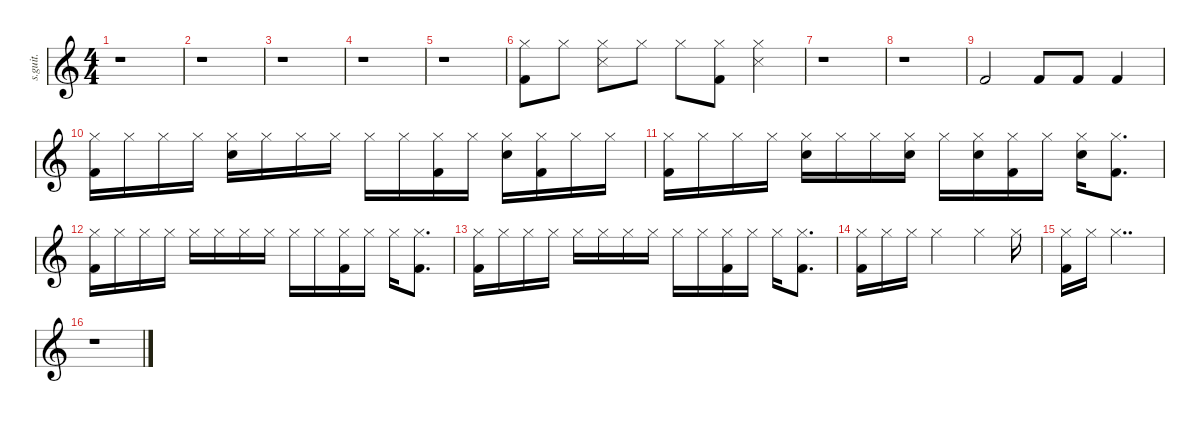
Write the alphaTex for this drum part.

\defaultSystemsLayout 4
\hideDynamics
\bracketExtendMode nobrackets
\track ("" "s.guit.") {instrument percussion}
\staff {score}
\articulation defaults
\ts (4 4)
\beaming (8 2 2 2 2)
\tempo (90 hide)
\clef g2
\ks c
r.1{dy f} |
r.1 |
r.1 |
r.1 |
r.1 |
("Hi-Hat (closed)" "Kick (hit) 2").8 "Hi-Hat (closed)".8 ("Hi-Hat (closed)" "Snare (side stick) 3").8 "Hi-Hat (closed)".8 "Hi-Hat (closed)".8 ("Hi-Hat (closed)" "Kick (hit) 2").8 ("Hi-Hat (closed)" "Snare (side stick) 3").4 |
r.1 |
r.1 |
"Kick (hit) 2".2 "Kick (hit) 2".8 "Kick (hit) 2".8 "Kick (hit) 2".4 |
("Hi-Hat (closed)" "Kick (hit) 2").16 "Hi-Hat (closed)".16 "Hi-Hat (closed)".16 "Hi-Hat (closed)".16 ("Hi-Hat (closed)" "Snare (hit) 2").16 "Hi-Hat (closed)".16 "Hi-Hat (closed)".16 "Hi-Hat (closed)".16 "Hi-Hat (closed)".16 "Hi-Hat (closed)".16 ("Hi-Hat (closed)" "Kick (hit) 2").16 "Hi-Hat (closed)".16 ("Hi-Hat (closed)" "Snare (hit) 2").16 ("Hi-Hat (closed)" "Kick (hit) 2").16 "Hi-Hat (closed)".16 "Hi-Hat (closed)".16 |
("Hi-Hat (closed)" "Kick (hit) 2").16 "Hi-Hat (closed)".16 "Hi-Hat (closed)".16 "Hi-Hat (closed)".16 ("Hi-Hat (closed)" "Snare (hit) 2").16 "Hi-Hat (closed)".16 "Hi-Hat (closed)".16 ("Hi-Hat (closed)" "Snare (hit) 2").16 "Hi-Hat (closed)".16 ("Hi-Hat (closed)" "Snare (hit) 2").16 ("Hi-Hat (closed)" "Kick (hit) 2").16 "Hi-Hat (closed)".16 ("Hi-Hat (closed)" "Snare (hit) 2").16 ("Hi-Hat (closed)" "Kick (hit) 2").8{d} |
("Hi-Hat (closed)" "Kick (hit) 2").16 "Hi-Hat (closed)".16 "Hi-Hat (closed)".16 "Hi-Hat (closed)".16 "Hi-Hat (closed)".16 "Hi-Hat (closed)".16 "Hi-Hat (closed)".16 "Hi-Hat (closed)".16 "Hi-Hat (closed)".16 "Hi-Hat (closed)".16 ("Hi-Hat (closed)" "Kick (hit) 2").16 "Hi-Hat (closed)".16 "Hi-Hat (closed)".16 ("Hi-Hat (closed)" "Kick (hit) 2").8{d} |
("Hi-Hat (closed)" "Kick (hit) 2").16 "Hi-Hat (closed)".16 "Hi-Hat (closed)".16 "Hi-Hat (closed)".16 "Hi-Hat (closed)".16 "Hi-Hat (closed)".16 "Hi-Hat (closed)".16 "Hi-Hat (closed)".16 "Hi-Hat (closed)".16 "Hi-Hat (closed)".16 ("Hi-Hat (closed)" "Kick (hit) 2").16 "Hi-Hat (closed)".16 "Hi-Hat (closed)".16 ("Hi-Hat (closed)" "Kick (hit) 2").8{d} |
("Hi-Hat (closed)" "Kick (hit) 2").16 "Hi-Hat (closed)".16 "Hi-Hat (closed)".16 "Hi-Hat (closed)".2 "Hi-Hat (closed)".4 "Hi-Hat (closed)".16 |
("Hi-Hat (closed)" "Kick (hit) 2").16 "Hi-Hat (closed)".16 "Hi-Hat (closed)".2{dd} |
r.1
